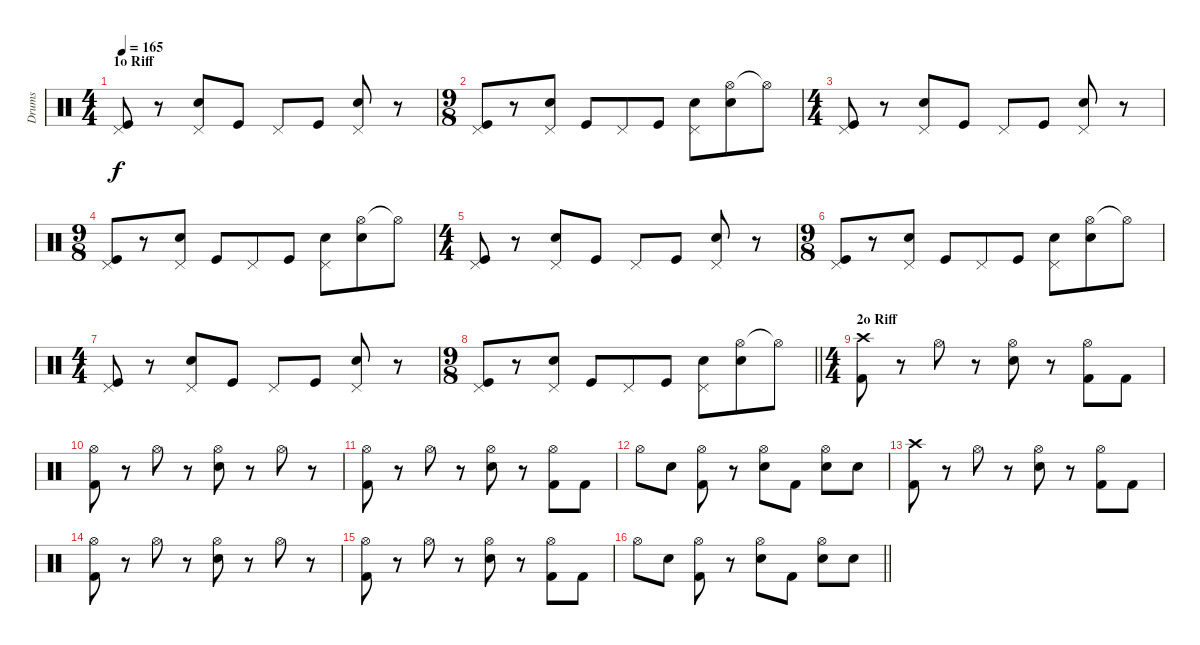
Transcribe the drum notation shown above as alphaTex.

\track ("Drums" "Drums") {instrument percussion}
\staff {score}
\articulation defaults
\ts (4 4)
\section ("" "1o Riff")
\tempo 165
\clef neutral
\ks c
("Pedal Hi-Hat (hit)" "Kick (hit)").8{dy f} r.8 ("Pedal Hi-Hat (hit)" "Electric Snare (hit)").8 "Kick (hit)".8 "Pedal Hi-Hat (hit)".8 "Kick (hit)".8 ("Pedal Hi-Hat (hit)" "Electric Snare (hit)").8 r.8 |
\ts (9 8)
("Pedal Hi-Hat (hit)" "Kick (hit)").8 r.8 ("Pedal Hi-Hat (hit)" "Electric Snare (hit)").8 "Kick (hit)".8 "Pedal Hi-Hat (hit)".8 "Kick (hit)".8 ("Pedal Hi-Hat (hit)" "Electric Snare (hit)").8 ("Hi-Hat (open)" "Electric Snare (hit)").8 "Hi-Hat (open)"{t}.8 |
\ts (4 4)
("Pedal Hi-Hat (hit)" "Kick (hit)").8 r.8 ("Pedal Hi-Hat (hit)" "Electric Snare (hit)").8 "Kick (hit)".8 "Pedal Hi-Hat (hit)".8 "Kick (hit)".8 ("Pedal Hi-Hat (hit)" "Electric Snare (hit)").8 r.8 |
\ts (9 8)
("Pedal Hi-Hat (hit)" "Kick (hit)").8 r.8 ("Pedal Hi-Hat (hit)" "Electric Snare (hit)").8 "Kick (hit)".8 "Pedal Hi-Hat (hit)".8 "Kick (hit)".8 ("Pedal Hi-Hat (hit)" "Electric Snare (hit)").8 ("Hi-Hat (open)" "Electric Snare (hit)").8 "Hi-Hat (open)"{t}.8 |
\ts (4 4)
("Pedal Hi-Hat (hit)" "Kick (hit)").8 r.8 ("Pedal Hi-Hat (hit)" "Electric Snare (hit)").8 "Kick (hit)".8 "Pedal Hi-Hat (hit)".8 "Kick (hit)".8 ("Pedal Hi-Hat (hit)" "Electric Snare (hit)").8 r.8 |
\ts (9 8)
("Pedal Hi-Hat (hit)" "Kick (hit)").8 r.8 ("Pedal Hi-Hat (hit)" "Electric Snare (hit)").8 "Kick (hit)".8 "Pedal Hi-Hat (hit)".8 "Kick (hit)".8 ("Pedal Hi-Hat (hit)" "Electric Snare (hit)").8 ("Hi-Hat (open)" "Electric Snare (hit)").8 "Hi-Hat (open)"{t}.8 |
\ts (4 4)
("Pedal Hi-Hat (hit)" "Kick (hit)").8 r.8 ("Pedal Hi-Hat (hit)" "Electric Snare (hit)").8 "Kick (hit)".8 "Pedal Hi-Hat (hit)".8 "Kick (hit)".8 ("Pedal Hi-Hat (hit)" "Electric Snare (hit)").8 r.8 |
\ts (9 8)
\barLineRight lightlight
("Pedal Hi-Hat (hit)" "Kick (hit)").8 r.8 ("Pedal Hi-Hat (hit)" "Electric Snare (hit)").8 "Kick (hit)".8 "Pedal Hi-Hat (hit)".8 "Kick (hit)".8 ("Pedal Hi-Hat (hit)" "Electric Snare (hit)").8 ("Hi-Hat (open)" "Electric Snare (hit)").8 "Hi-Hat (open)"{t}.8 |
\ts (4 4)
\section ("" "2o Riff")
("Crash high (hit)" "Kick (hit) 2").8 r.8 "Hi-Hat (open)".8 r.8 ("Hi-Hat (open)" "Electric Snare (hit)").8 r.8 ("Hi-Hat (open)" "Kick (hit) 2").8 "Kick (hit) 2".8 |
("Hi-Hat (open)" "Kick (hit) 2").8 r.8 "Hi-Hat (open)".8 r.8 ("Hi-Hat (open)" "Electric Snare (hit)").8 r.8 "Hi-Hat (open)".8 r.8 |
("Hi-Hat (open)" "Kick (hit) 2").8 r.8 "Hi-Hat (open)".8 r.8 ("Hi-Hat (open)" "Electric Snare (hit)").8 r.8 ("Hi-Hat (open)" "Kick (hit) 2").8 "Kick (hit) 2".8 |
"Hi-Hat (open)".8 "Electric Snare (hit)".8 ("Hi-Hat (open)" "Kick (hit) 2").8 r.8 ("Hi-Hat (open)" "Electric Snare (hit)").8 "Kick (hit) 2".8 ("Hi-Hat (open)" "Electric Snare (hit)").8 "Electric Snare (hit)".8 |
("Crash high (hit)" "Kick (hit) 2").8 r.8 "Hi-Hat (open)".8 r.8 ("Hi-Hat (open)" "Electric Snare (hit)").8 r.8 ("Hi-Hat (open)" "Kick (hit) 2").8 "Kick (hit) 2".8 |
("Hi-Hat (open)" "Kick (hit) 2").8 r.8 "Hi-Hat (open)".8 r.8 ("Hi-Hat (open)" "Electric Snare (hit)").8 r.8 "Hi-Hat (open)".8 r.8 |
("Hi-Hat (open)" "Kick (hit) 2").8 r.8 "Hi-Hat (open)".8 r.8 ("Hi-Hat (open)" "Electric Snare (hit)").8 r.8 ("Hi-Hat (open)" "Kick (hit) 2").8 "Kick (hit) 2".8 |
\barLineRight lightlight "Hi-Hat (open)".8 "Electric Snare (hit)".8
("Hi-Hat (open)" "Kick (hit) 2").8 r.8 ("Hi-Hat (open)" "Electric Snare (hit)").8 "Kick (hit) 2".8 ("Hi-Hat (open)" "Electric Snare (hit)").8 "Electric Snare (hit)".8
